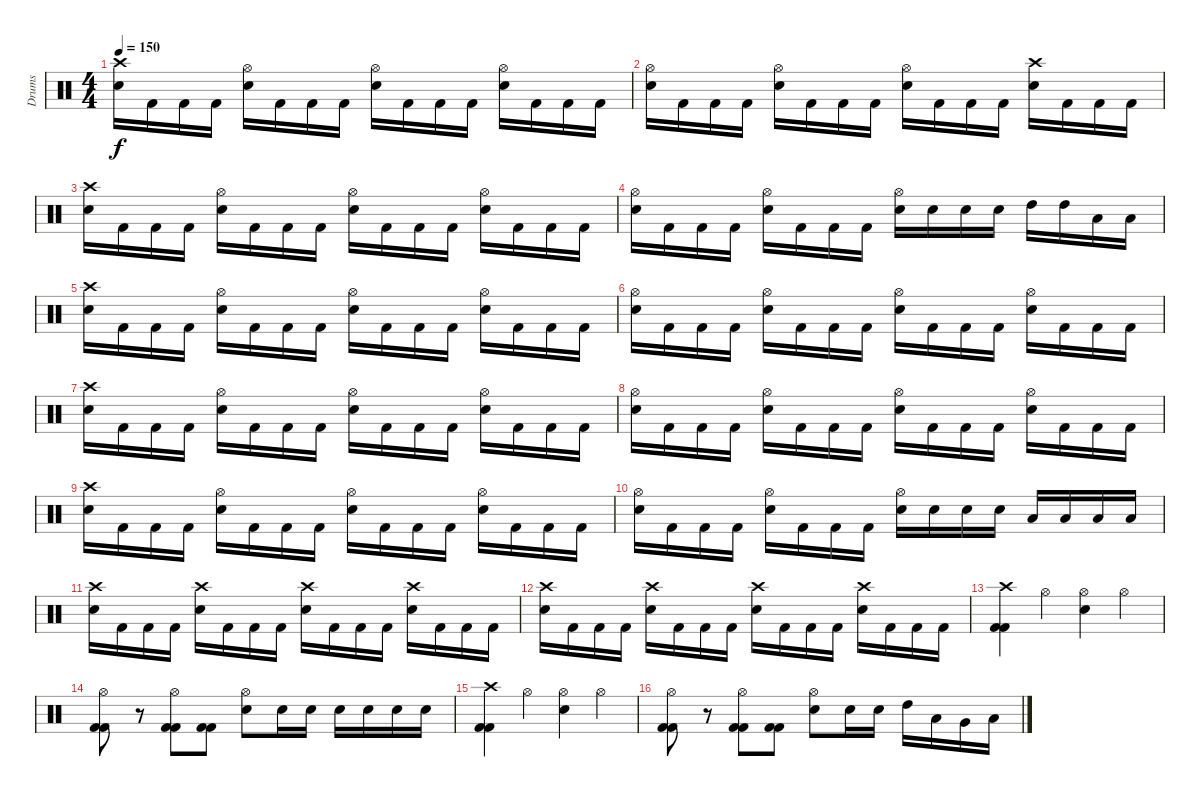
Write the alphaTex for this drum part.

\track ("Drums" "Drums") {instrument percussion}
\staff {score}
\articulation defaults
\ts (4 4)
\tempo 150
\clef neutral
\ks c
("Electric Snare (hit)" "Crash high (hit)").16{dy f} "Kick (hit) 2".16 "Kick (hit) 2".16 "Kick (hit) 2".16 ("Hi-Hat (open)" "Electric Snare (hit)").16 "Kick (hit) 2".16 "Kick (hit) 2".16 "Kick (hit) 2".16 ("Electric Snare (hit)" "Hi-Hat (open)").16 "Kick (hit) 2".16 "Kick (hit) 2".16 "Kick (hit) 2".16 ("Electric Snare (hit)" "Hi-Hat (open)").16 "Kick (hit) 2".16 "Kick (hit) 2".16 "Kick (hit) 2".16 |
("Electric Snare (hit)" "Hi-Hat (open)").16 "Kick (hit) 2".16 "Kick (hit) 2".16 "Kick (hit) 2".16 ("Hi-Hat (open)" "Electric Snare (hit)").16 "Kick (hit) 2".16 "Kick (hit) 2".16 "Kick (hit) 2".16 ("Electric Snare (hit)" "Hi-Hat (open)").16 "Kick (hit) 2".16 "Kick (hit) 2".16 "Kick (hit) 2".16 ("Electric Snare (hit)" "Crash high (hit)").16 "Kick (hit) 2".16 "Kick (hit) 2".16 "Kick (hit) 2".16 |
("Electric Snare (hit)" "Crash high (hit)").16 "Kick (hit) 2".16 "Kick (hit) 2".16 "Kick (hit) 2".16 ("Hi-Hat (open)" "Electric Snare (hit)").16 "Kick (hit) 2".16 "Kick (hit) 2".16 "Kick (hit) 2".16 ("Electric Snare (hit)" "Hi-Hat (open)").16 "Kick (hit) 2".16 "Kick (hit) 2".16 "Kick (hit) 2".16 ("Electric Snare (hit)" "Hi-Hat (open)").16 "Kick (hit) 2".16 "Kick (hit) 2".16 "Kick (hit) 2".16 |
("Electric Snare (hit)" "Hi-Hat (open)").16 "Kick (hit) 2".16 "Kick (hit) 2".16 "Kick (hit) 2".16 ("Hi-Hat (open)" "Electric Snare (hit)").16 "Kick (hit) 2".16 "Kick (hit) 2".16 "Kick (hit) 2".16 ("Electric Snare (hit)" "Hi-Hat (open)").16 "Electric Snare (hit)".16 "Electric Snare (hit)".16 "Electric Snare (hit)".16 "High Tom (hit)".16 "High Tom (hit)".16 "Low Tom (hit)".16 "Low Tom (hit)".16 |
("Electric Snare (hit)" "Crash high (hit)").16 "Kick (hit) 2".16 "Kick (hit) 2".16 "Kick (hit) 2".16 ("Hi-Hat (open)" "Electric Snare (hit)").16 "Kick (hit) 2".16 "Kick (hit) 2".16 "Kick (hit) 2".16 ("Electric Snare (hit)" "Hi-Hat (open)").16 "Kick (hit) 2".16 "Kick (hit) 2".16 "Kick (hit) 2".16 ("Electric Snare (hit)" "Hi-Hat (open)").16 "Kick (hit) 2".16 "Kick (hit) 2".16 "Kick (hit) 2".16 |
("Electric Snare (hit)" "Hi-Hat (open)").16 "Kick (hit) 2".16 "Kick (hit) 2".16 "Kick (hit) 2".16 ("Hi-Hat (open)" "Electric Snare (hit)").16 "Kick (hit) 2".16 "Kick (hit) 2".16 "Kick (hit) 2".16 ("Electric Snare (hit)" "Hi-Hat (open)").16 "Kick (hit) 2".16 "Kick (hit) 2".16 "Kick (hit) 2".16 ("Electric Snare (hit)" "Hi-Hat (open)").16 "Kick (hit) 2".16 "Kick (hit) 2".16 "Kick (hit) 2".16 |
("Electric Snare (hit)" "Crash high (hit)").16 "Kick (hit) 2".16 "Kick (hit) 2".16 "Kick (hit) 2".16 ("Hi-Hat (open)" "Electric Snare (hit)").16 "Kick (hit) 2".16 "Kick (hit) 2".16 "Kick (hit) 2".16 ("Electric Snare (hit)" "Hi-Hat (open)").16 "Kick (hit) 2".16 "Kick (hit) 2".16 "Kick (hit) 2".16 ("Electric Snare (hit)" "Hi-Hat (open)").16 "Kick (hit) 2".16 "Kick (hit) 2".16 "Kick (hit) 2".16 |
("Electric Snare (hit)" "Hi-Hat (open)").16 "Kick (hit) 2".16 "Kick (hit) 2".16 "Kick (hit) 2".16 ("Hi-Hat (open)" "Electric Snare (hit)").16 "Kick (hit) 2".16 "Kick (hit) 2".16 "Kick (hit) 2".16 ("Electric Snare (hit)" "Hi-Hat (open)").16 "Kick (hit) 2".16 "Kick (hit) 2".16 "Kick (hit) 2".16 ("Electric Snare (hit)" "Hi-Hat (open)").16 "Kick (hit) 2".16 "Kick (hit) 2".16 "Kick (hit) 2".16 |
("Electric Snare (hit)" "Crash high (hit)").16 "Kick (hit) 2".16 "Kick (hit) 2".16 "Kick (hit) 2".16 ("Hi-Hat (open)" "Electric Snare (hit)").16 "Kick (hit) 2".16 "Kick (hit) 2".16 "Kick (hit) 2".16 ("Electric Snare (hit)" "Hi-Hat (open)").16 "Kick (hit) 2".16 "Kick (hit) 2".16 "Kick (hit) 2".16 ("Electric Snare (hit)" "Hi-Hat (open)").16 "Kick (hit) 2".16 "Kick (hit) 2".16 "Kick (hit) 2".16 |
("Electric Snare (hit)" "Hi-Hat (open)").16 "Kick (hit) 2".16 "Kick (hit) 2".16 "Kick (hit) 2".16 ("Hi-Hat (open)" "Electric Snare (hit)").16 "Kick (hit) 2".16 "Kick (hit) 2".16 "Kick (hit) 2".16 ("Electric Snare (hit)" "Hi-Hat (open)").16 "Electric Snare (hit)".16 "Electric Snare (hit)".16 "Electric Snare (hit)".16 "Low Tom (hit)".16 "Low Tom (hit)".16 "Low Tom (hit)".16 "Low Tom (hit)".16 |
("Electric Snare (hit)" "Crash high (hit)").16 "Kick (hit) 2".16 "Kick (hit) 2".16 "Kick (hit) 2".16 ("Crash high (hit)" "Electric Snare (hit)").16 "Kick (hit) 2".16 "Kick (hit) 2".16 "Kick (hit) 2".16 ("Electric Snare (hit)" "Crash high (hit)").16 "Kick (hit) 2".16 "Kick (hit) 2".16 "Kick (hit) 2".16 ("Electric Snare (hit)" "Crash high (hit)").16 "Kick (hit) 2".16 "Kick (hit) 2".16 "Kick (hit) 2".16 |
("Electric Snare (hit)" "Crash high (hit)").16 "Kick (hit) 2".16 "Kick (hit) 2".16 "Kick (hit) 2".16 ("Crash high (hit)" "Electric Snare (hit)").16 "Kick (hit) 2".16 "Kick (hit) 2".16 "Kick (hit) 2".16 ("Electric Snare (hit)" "Crash high (hit)").16 "Kick (hit) 2".16 "Kick (hit) 2".16 "Kick (hit) 2".16 ("Electric Snare (hit)" "Crash high (hit)").16 "Kick (hit) 2".16 "Kick (hit) 2".16 "Kick (hit) 2".16 |
("Crash high (hit)" "Kick (hit) 2" "Kick (hit) 2").4 "Hi-Hat (open)".4 ("Electric Snare (hit)" "Hi-Hat (open)").4 "Hi-Hat (open)".4 |
("Hi-Hat (open)" "Kick (hit) 2" "Kick (hit) 2").8 r.8 ("Hi-Hat (open)" "Kick (hit) 2" "Kick (hit) 2").8 ("Kick (hit) 2" "Kick (hit) 2").8 ("Hi-Hat (open)" "Electric Snare (hit)").8 "Electric Snare (hit)".16 "Electric Snare (hit)".16 "Electric Snare (hit)".16 "Electric Snare (hit)".16 "Electric Snare (hit)".16 "Electric Snare (hit)".16 |
("Crash high (hit)" "Kick (hit) 2" "Kick (hit) 2").4 "Hi-Hat (open)".4 ("Electric Snare (hit)" "Hi-Hat (open)").4 "Hi-Hat (open)".4 |
("Hi-Hat (open)" "Kick (hit) 2" "Kick (hit) 2").8 r.8 ("Hi-Hat (open)" "Kick (hit) 2" "Kick (hit) 2").8 ("Kick (hit) 2" "Kick (hit) 2").8 ("Hi-Hat (open)" "Electric Snare (hit)").8 "Electric Snare (hit)".16 "Electric Snare (hit)".16 "High Tom (hit)".16 "Low Tom (hit)".16 "Very Low Tom (hit)".16 "Low Floor Tom (hit)".16
